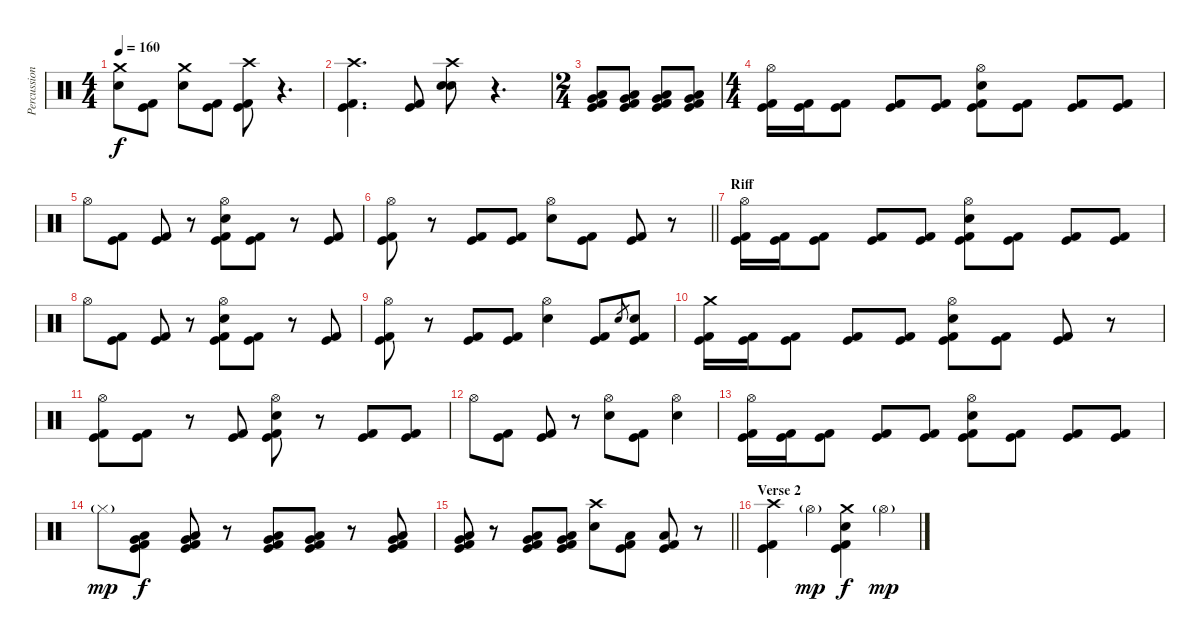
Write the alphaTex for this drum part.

\track ("Percussion" "Percussion") {instrument percussion}
\staff {score}
\articulation defaults
\ts (4 4)
\tempo 160
\clef neutral
\ks c
("Crash medium (hit)" "Electric Snare (hit)").8{dy f} ("Kick (hit)" "Kick (hit) 2").8 ("Crash medium (hit)" "Electric Snare (hit)").8 ("Kick (hit)" "Kick (hit) 2").8 ("Crash high (hit)" "Kick (hit)" "Kick (hit) 2").8 r.4{d} |
("Crash high (hit)" "Kick (hit)" "Kick (hit) 2").4{d} ("Kick (hit)" "Kick (hit) 2").8 ("Crash high (hit)" "Electric Snare (hit)" "Electric Snare (hit)").8 r.4{d} |
\ts (2 4)
("Low Floor Tom (hit)" "Very Low Tom (hit)" "Kick (hit)" "Kick (hit) 2").8 ("Low Floor Tom (hit)" "Very Low Tom (hit)" "Kick (hit)" "Kick (hit) 2").8 ("Low Floor Tom (hit)" "Very Low Tom (hit)" "Kick (hit)" "Kick (hit) 2").8 ("Low Floor Tom (hit)" "Very Low Tom (hit)" "Kick (hit)" "Kick (hit) 2").8 |
\ts (4 4)
("Hi-Hat (open)" "Kick (hit)" "Kick (hit) 2").16 ("Kick (hit)" "Kick (hit) 2").16 ("Kick (hit)" "Kick (hit) 2").8 ("Kick (hit)" "Kick (hit) 2").8 ("Kick (hit)" "Kick (hit) 2").8 ("Hi-Hat (open)" "Electric Snare (hit)" "Kick (hit)" "Kick (hit) 2").8 ("Kick (hit)" "Kick (hit) 2").8 ("Kick (hit)" "Kick (hit) 2").8 ("Kick (hit)" "Kick (hit) 2").8 |
"Hi-Hat (open)".8 ("Kick (hit)" "Kick (hit) 2").8 ("Kick (hit)" "Kick (hit) 2").8 r.8 ("Hi-Hat (open)" "Electric Snare (hit)" "Kick (hit)" "Kick (hit) 2").8 ("Kick (hit)" "Kick (hit) 2").8 r.8 ("Kick (hit)" "Kick (hit) 2").8 |
\barLineRight lightlight
("Hi-Hat (open)" "Kick (hit)" "Kick (hit) 2").8 r.8 ("Kick (hit)" "Kick (hit) 2").8 ("Kick (hit)" "Kick (hit) 2").8 ("Hi-Hat (open)" "Electric Snare (hit)").8 ("Kick (hit)" "Kick (hit) 2").8 ("Kick (hit)" "Kick (hit) 2").8 r.8 |
\section ("" "Riff")
("Hi-Hat (open)" "Kick (hit)" "Kick (hit) 2").16 ("Kick (hit)" "Kick (hit) 2").16 ("Kick (hit)" "Kick (hit) 2").8 ("Kick (hit)" "Kick (hit) 2").8 ("Kick (hit)" "Kick (hit) 2").8 ("Hi-Hat (open)" "Electric Snare (hit)" "Kick (hit)" "Kick (hit) 2").8 ("Kick (hit)" "Kick (hit) 2").8 ("Kick (hit)" "Kick (hit) 2").8 ("Kick (hit)" "Kick (hit) 2").8 |
"Hi-Hat (open)".8 ("Kick (hit)" "Kick (hit) 2").8 ("Kick (hit)" "Kick (hit) 2").8 r.8 ("Hi-Hat (open)" "Electric Snare (hit)" "Kick (hit)" "Kick (hit) 2").8 ("Kick (hit)" "Kick (hit) 2").8 r.8 ("Kick (hit)" "Kick (hit) 2").8 |
("Hi-Hat (open)" "Kick (hit)" "Kick (hit) 2").8 r.8 ("Kick (hit)" "Kick (hit) 2").8 ("Kick (hit)" "Kick (hit) 2").8 ("Hi-Hat (open)" "Electric Snare (hit)").4 ("Kick (hit)" "Kick (hit) 2").8 "Electric Snare (hit)".8{gr} ("Electric Snare (hit)" "Kick (hit)" "Kick (hit) 2").8 |
("Crash medium (hit)" "Kick (hit)" "Kick (hit) 2").16 ("Kick (hit)" "Kick (hit) 2").16 ("Kick (hit)" "Kick (hit) 2").8 ("Kick (hit)" "Kick (hit) 2").8 ("Kick (hit)" "Kick (hit) 2").8 ("Hi-Hat (open)" "Electric Snare (hit)" "Kick (hit)" "Kick (hit) 2").8 ("Kick (hit)" "Kick (hit) 2").8 ("Kick (hit)" "Kick (hit) 2").8 r.8 |
("Hi-Hat (open)" "Kick (hit)" "Kick (hit) 2").8 ("Kick (hit)" "Kick (hit) 2").8 r.8 ("Kick (hit)" "Kick (hit) 2").8 ("Hi-Hat (open)" "Electric Snare (hit)" "Kick (hit)" "Kick (hit) 2").8 r.8 ("Kick (hit)" "Kick (hit) 2").8 ("Kick (hit)" "Kick (hit) 2").8 |
"Hi-Hat (open)".8 ("Kick (hit)" "Kick (hit) 2").8 ("Kick (hit)" "Kick (hit) 2").8 r.8 ("Hi-Hat (open)" "Electric Snare (hit)").8 ("Kick (hit)" "Kick (hit) 2").8 ("Hi-Hat (open)" "Electric Snare (hit)").4 |
("Hi-Hat (open)" "Kick (hit)" "Kick (hit) 2").16 ("Kick (hit)" "Kick (hit) 2").16 ("Kick (hit)" "Kick (hit) 2").8 ("Kick (hit)" "Kick (hit) 2").8 ("Kick (hit)" "Kick (hit) 2").8 ("Hi-Hat (open)" "Electric Snare (hit)" "Kick (hit)" "Kick (hit) 2").8 ("Kick (hit)" "Kick (hit) 2").8 ("Kick (hit)" "Kick (hit) 2").8 ("Kick (hit)" "Kick (hit) 2").8 |
"Hi-Hat (closed)"{g}.8{dy mp} ("Very Low Tom (hit)" "Low Floor Tom (hit)" "Kick (hit)" "Kick (hit) 2").8{dy f} ("Very Low Tom (hit)" "Low Floor Tom (hit)" "Kick (hit)" "Kick (hit) 2").8 r.8 ("Very Low Tom (hit)" "Low Floor Tom (hit)" "Kick (hit)" "Kick (hit) 2").8 ("Very Low Tom (hit)" "Low Floor Tom (hit)" "Kick (hit)" "Kick (hit) 2").8 r.8 ("Very Low Tom (hit)" "Low Floor Tom (hit)" "Kick (hit)" "Kick (hit) 2").8 |
\barLineRight lightlight
("Very Low Tom (hit)" "Low Floor Tom (hit)" "Kick (hit)" "Kick (hit) 2").8 r.8 ("Very Low Tom (hit)" "Low Floor Tom (hit)" "Kick (hit)" "Kick (hit) 2").8 ("Very Low Tom (hit)" "Low Floor Tom (hit)" "Kick (hit)" "Kick (hit) 2").8 ("Crash high (hit)" "Electric Snare (hit)").8 ("Low Floor Tom (hit)" "Kick (hit)" "Kick (hit) 2").8 ("Low Floor Tom (hit)" "Kick (hit)" "Kick (hit) 2").8 r.8 |
\section ("" "Verse 2")
("Crash high (hit)" "Kick (hit)" "Kick (hit) 2").4 "Hi-Hat (open)"{g}.4{dy mp} ("Crash medium (hit)" "Electric Snare (hit)" "Kick (hit)" "Kick (hit) 2").4{dy f} "Hi-Hat (open)"{g}.4{dy mp}
